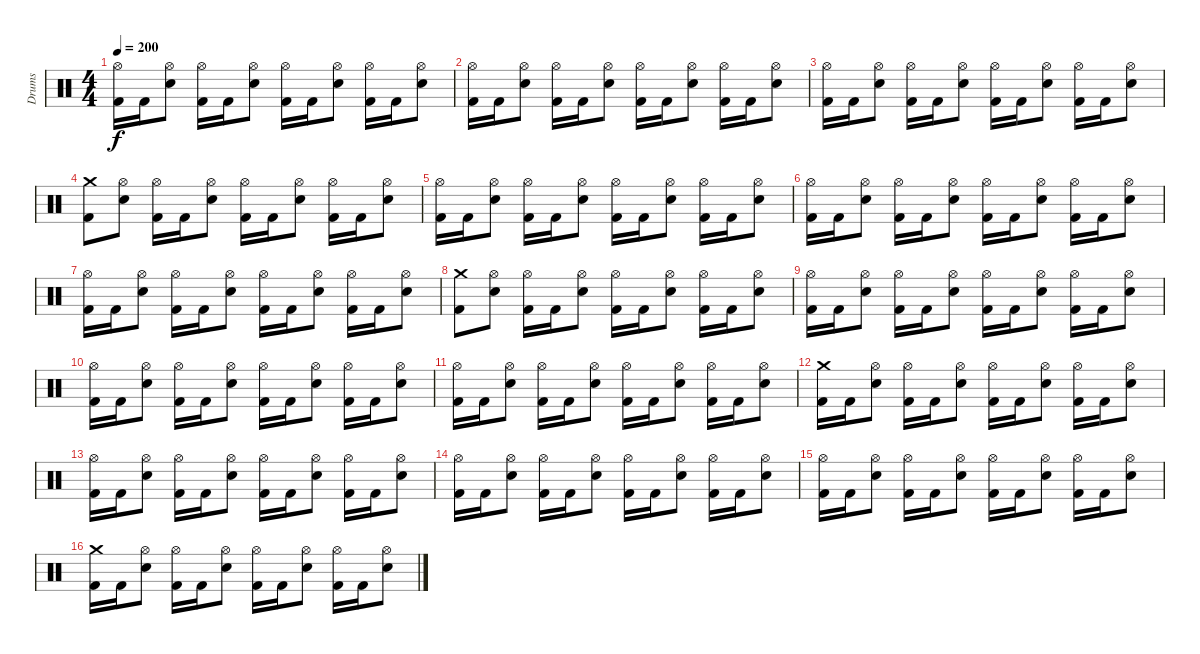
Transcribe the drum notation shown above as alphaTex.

\track ("Drums" "Drums") {instrument percussion}
\staff {score}
\articulation defaults
\ts (4 4)
\tempo 200
\clef neutral
\ks c
("Hi-Hat (open)" "Kick (hit) 2").16{dy f} "Kick (hit) 2".16 ("Hi-Hat (open)" "Electric Snare (hit)").8 ("Hi-Hat (open)" "Kick (hit) 2").16 "Kick (hit) 2".16 ("Hi-Hat (open)" "Electric Snare (hit)").8 ("Hi-Hat (open)" "Kick (hit) 2").16 "Kick (hit) 2".16 ("Hi-Hat (open)" "Electric Snare (hit)").8 ("Hi-Hat (open)" "Kick (hit) 2").16 "Kick (hit) 2".16 ("Hi-Hat (open)" "Electric Snare (hit)").8 |
("Hi-Hat (open)" "Kick (hit) 2").16 "Kick (hit) 2".16 ("Hi-Hat (open)" "Electric Snare (hit)").8 ("Hi-Hat (open)" "Kick (hit) 2").16 "Kick (hit) 2".16 ("Hi-Hat (open)" "Electric Snare (hit)").8 ("Hi-Hat (open)" "Kick (hit) 2").16 "Kick (hit) 2".16 ("Hi-Hat (open)" "Electric Snare (hit)").8 ("Hi-Hat (open)" "Kick (hit) 2").16 "Kick (hit) 2".16 ("Hi-Hat (open)" "Electric Snare (hit)").8 |
("Hi-Hat (open)" "Kick (hit) 2").16 "Kick (hit) 2".16 ("Hi-Hat (open)" "Electric Snare (hit)").8 ("Hi-Hat (open)" "Kick (hit) 2").16 "Kick (hit) 2".16 ("Hi-Hat (open)" "Electric Snare (hit)").8 ("Hi-Hat (open)" "Kick (hit) 2").16 "Kick (hit) 2".16 ("Hi-Hat (open)" "Electric Snare (hit)").8 ("Hi-Hat (open)" "Kick (hit) 2").16 "Kick (hit) 2".16 ("Hi-Hat (open)" "Electric Snare (hit)").8 |
("Crash medium (hit)" "Kick (hit) 2").8 ("Hi-Hat (open)" "Electric Snare (hit)").8 ("Hi-Hat (open)" "Kick (hit) 2").16 "Kick (hit) 2".16 ("Hi-Hat (open)" "Electric Snare (hit)").8 ("Hi-Hat (open)" "Kick (hit) 2").16 "Kick (hit) 2".16 ("Hi-Hat (open)" "Electric Snare (hit)").8 ("Hi-Hat (open)" "Kick (hit) 2").16 "Kick (hit) 2".16 ("Hi-Hat (open)" "Electric Snare (hit)").8 |
("Hi-Hat (open)" "Kick (hit) 2").16 "Kick (hit) 2".16 ("Hi-Hat (open)" "Electric Snare (hit)").8 ("Hi-Hat (open)" "Kick (hit) 2").16 "Kick (hit) 2".16 ("Hi-Hat (open)" "Electric Snare (hit)").8 ("Hi-Hat (open)" "Kick (hit) 2").16 "Kick (hit) 2".16 ("Hi-Hat (open)" "Electric Snare (hit)").8 ("Hi-Hat (open)" "Kick (hit) 2").16 "Kick (hit) 2".16 ("Hi-Hat (open)" "Electric Snare (hit)").8 |
("Hi-Hat (open)" "Kick (hit) 2").16 "Kick (hit) 2".16 ("Hi-Hat (open)" "Electric Snare (hit)").8 ("Hi-Hat (open)" "Kick (hit) 2").16 "Kick (hit) 2".16 ("Hi-Hat (open)" "Electric Snare (hit)").8 ("Hi-Hat (open)" "Kick (hit) 2").16 "Kick (hit) 2".16 ("Hi-Hat (open)" "Electric Snare (hit)").8 ("Hi-Hat (open)" "Kick (hit) 2").16 "Kick (hit) 2".16 ("Hi-Hat (open)" "Electric Snare (hit)").8 |
("Hi-Hat (open)" "Kick (hit) 2").16 "Kick (hit) 2".16 ("Hi-Hat (open)" "Electric Snare (hit)").8 ("Hi-Hat (open)" "Kick (hit) 2").16 "Kick (hit) 2".16 ("Hi-Hat (open)" "Electric Snare (hit)").8 ("Hi-Hat (open)" "Kick (hit) 2").16 "Kick (hit) 2".16 ("Hi-Hat (open)" "Electric Snare (hit)").8 ("Hi-Hat (open)" "Kick (hit) 2").16 "Kick (hit) 2".16 ("Hi-Hat (open)" "Electric Snare (hit)").8 |
("Crash medium (hit)" "Kick (hit) 2").8 ("Hi-Hat (open)" "Electric Snare (hit)").8 ("Hi-Hat (open)" "Kick (hit) 2").16 "Kick (hit) 2".16 ("Hi-Hat (open)" "Electric Snare (hit)").8 ("Hi-Hat (open)" "Kick (hit) 2").16 "Kick (hit) 2".16 ("Hi-Hat (open)" "Electric Snare (hit)").8 ("Hi-Hat (open)" "Kick (hit) 2").16 "Kick (hit) 2".16 ("Hi-Hat (open)" "Electric Snare (hit)").8 |
("Hi-Hat (open)" "Kick (hit) 2").16 "Kick (hit) 2".16 ("Hi-Hat (open)" "Electric Snare (hit)").8 ("Hi-Hat (open)" "Kick (hit) 2").16 "Kick (hit) 2".16 ("Hi-Hat (open)" "Electric Snare (hit)").8 ("Hi-Hat (open)" "Kick (hit) 2").16 "Kick (hit) 2".16 ("Hi-Hat (open)" "Electric Snare (hit)").8 ("Hi-Hat (open)" "Kick (hit) 2").16 "Kick (hit) 2".16 ("Hi-Hat (open)" "Electric Snare (hit)").8 |
("Hi-Hat (open)" "Kick (hit) 2").16 "Kick (hit) 2".16 ("Hi-Hat (open)" "Electric Snare (hit)").8 ("Hi-Hat (open)" "Kick (hit) 2").16 "Kick (hit) 2".16 ("Hi-Hat (open)" "Electric Snare (hit)").8 ("Hi-Hat (open)" "Kick (hit) 2").16 "Kick (hit) 2".16 ("Hi-Hat (open)" "Electric Snare (hit)").8 ("Hi-Hat (open)" "Kick (hit) 2").16 "Kick (hit) 2".16 ("Hi-Hat (open)" "Electric Snare (hit)").8 |
("Hi-Hat (open)" "Kick (hit) 2").16 "Kick (hit) 2".16 ("Hi-Hat (open)" "Electric Snare (hit)").8 ("Hi-Hat (open)" "Kick (hit) 2").16 "Kick (hit) 2".16 ("Hi-Hat (open)" "Electric Snare (hit)").8 ("Hi-Hat (open)" "Kick (hit) 2").16 "Kick (hit) 2".16 ("Hi-Hat (open)" "Electric Snare (hit)").8 ("Hi-Hat (open)" "Kick (hit) 2").16 "Kick (hit) 2".16 ("Hi-Hat (open)" "Electric Snare (hit)").8 |
("Crash medium (hit)" "Kick (hit) 2").16 "Kick (hit) 2".16 ("Hi-Hat (open)" "Electric Snare (hit)").8 ("Hi-Hat (open)" "Kick (hit) 2").16 "Kick (hit) 2".16 ("Hi-Hat (open)" "Electric Snare (hit)").8 ("Hi-Hat (open)" "Kick (hit) 2").16 "Kick (hit) 2".16 ("Hi-Hat (open)" "Electric Snare (hit)").8 ("Hi-Hat (open)" "Kick (hit) 2").16 "Kick (hit) 2".16 ("Hi-Hat (open)" "Electric Snare (hit)").8 |
("Hi-Hat (open)" "Kick (hit) 2").16 "Kick (hit) 2".16 ("Hi-Hat (open)" "Electric Snare (hit)").8 ("Hi-Hat (open)" "Kick (hit) 2").16 "Kick (hit) 2".16 ("Hi-Hat (open)" "Electric Snare (hit)").8 ("Hi-Hat (open)" "Kick (hit) 2").16 "Kick (hit) 2".16 ("Hi-Hat (open)" "Electric Snare (hit)").8 ("Hi-Hat (open)" "Kick (hit) 2").16 "Kick (hit) 2".16 ("Hi-Hat (open)" "Electric Snare (hit)").8 |
("Hi-Hat (open)" "Kick (hit) 2").16 "Kick (hit) 2".16 ("Hi-Hat (open)" "Electric Snare (hit)").8 ("Hi-Hat (open)" "Kick (hit) 2").16 "Kick (hit) 2".16 ("Hi-Hat (open)" "Electric Snare (hit)").8 ("Hi-Hat (open)" "Kick (hit) 2").16 "Kick (hit) 2".16 ("Hi-Hat (open)" "Electric Snare (hit)").8 ("Hi-Hat (open)" "Kick (hit) 2").16 "Kick (hit) 2".16 ("Hi-Hat (open)" "Electric Snare (hit)").8 |
("Hi-Hat (open)" "Kick (hit) 2").16 "Kick (hit) 2".16 ("Hi-Hat (open)" "Electric Snare (hit)").8 ("Hi-Hat (open)" "Kick (hit) 2").16 "Kick (hit) 2".16 ("Hi-Hat (open)" "Electric Snare (hit)").8 ("Hi-Hat (open)" "Kick (hit) 2").16 "Kick (hit) 2".16 ("Hi-Hat (open)" "Electric Snare (hit)").8 ("Hi-Hat (open)" "Kick (hit) 2").16 "Kick (hit) 2".16 ("Hi-Hat (open)" "Electric Snare (hit)").8 |
("Crash medium (hit)" "Kick (hit) 2").16 "Kick (hit) 2".16 ("Hi-Hat (open)" "Electric Snare (hit)").8 ("Hi-Hat (open)" "Kick (hit) 2").16 "Kick (hit) 2".16 ("Hi-Hat (open)" "Electric Snare (hit)").8 ("Hi-Hat (open)" "Kick (hit) 2").16 "Kick (hit) 2".16 ("Hi-Hat (open)" "Electric Snare (hit)").8 ("Hi-Hat (open)" "Kick (hit) 2").16 "Kick (hit) 2".16 ("Hi-Hat (open)" "Electric Snare (hit)").8
